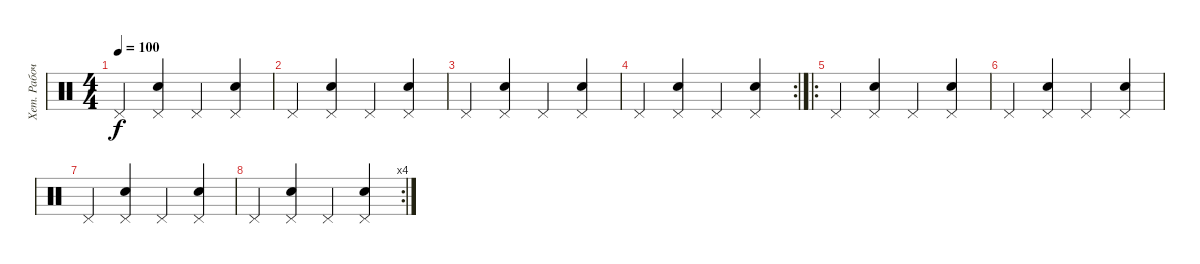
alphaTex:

\track ("Хет. Рабочий" "Хет. Рабоч") {instrument percussion}
\staff {score}
\articulation defaults
\ts (4 4)
\tempo 100
\clef neutral
\ks c "Pedal Hi-Hat (hit)".4{dy f}
("Pedal Hi-Hat (hit)" "Electric Snare (hit)").4 "Pedal Hi-Hat (hit)".4 ("Pedal Hi-Hat (hit)" "Electric Snare (hit)").4 |
"Pedal Hi-Hat (hit)".4 ("Pedal Hi-Hat (hit)" "Electric Snare (hit)").4 "Pedal Hi-Hat (hit)".4 ("Pedal Hi-Hat (hit)" "Electric Snare (hit)").4 |
"Pedal Hi-Hat (hit)".4 ("Pedal Hi-Hat (hit)" "Electric Snare (hit)").4 "Pedal Hi-Hat (hit)".4 ("Pedal Hi-Hat (hit)" "Electric Snare (hit)").4 |
\rc 2 "Pedal Hi-Hat (hit)".4
("Pedal Hi-Hat (hit)" "Electric Snare (hit)").4 "Pedal Hi-Hat (hit)".4 ("Pedal Hi-Hat (hit)" "Electric Snare (hit)").4 |
\ro "Pedal Hi-Hat (hit)".4
("Pedal Hi-Hat (hit)" "Electric Snare (hit)").4 "Pedal Hi-Hat (hit)".4 ("Pedal Hi-Hat (hit)" "Electric Snare (hit)").4 |
"Pedal Hi-Hat (hit)".4 ("Pedal Hi-Hat (hit)" "Electric Snare (hit)").4 "Pedal Hi-Hat (hit)".4 ("Pedal Hi-Hat (hit)" "Electric Snare (hit)").4 |
"Pedal Hi-Hat (hit)".4 ("Pedal Hi-Hat (hit)" "Electric Snare (hit)").4 "Pedal Hi-Hat (hit)".4 ("Pedal Hi-Hat (hit)" "Electric Snare (hit)").4 |
\rc 4 "Pedal Hi-Hat (hit)".4
("Pedal Hi-Hat (hit)" "Electric Snare (hit)").4 "Pedal Hi-Hat (hit)".4 ("Pedal Hi-Hat (hit)" "Electric Snare (hit)").4
